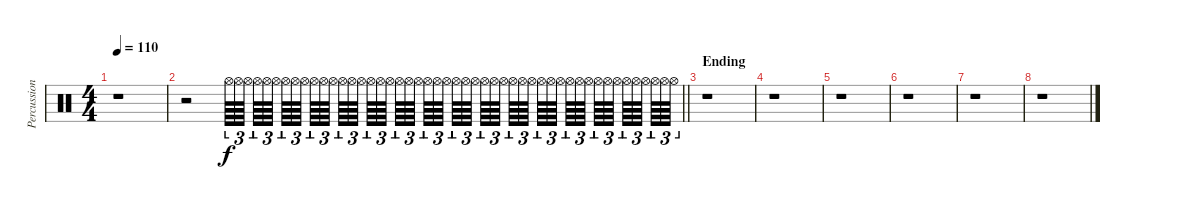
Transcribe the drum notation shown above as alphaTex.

\track ("Percussion" "Percussion") {instrument percussion}
\staff {score}
\articulation defaults
\ts (4 4)
\tempo 110
\clef neutral
\ks c
r.1{dy f} |
\barLineRight lightlight
r.2 "Hi-Hat (open)".64{tu (3 2)} "Hi-Hat (open)".64{tu (3 2)} "Hi-Hat (open)".64{tu (3 2) beam splitsecondary} "Hi-Hat (open)".64{tu (3 2)} "Hi-Hat (open)".64{tu (3 2)} "Hi-Hat (open)".64{tu (3 2) beam splitsecondary} "Hi-Hat (open)".64{tu (3 2)} "Hi-Hat (open)".64{tu (3 2)} "Hi-Hat (open)".64{tu (3 2) beam splitsecondary} "Hi-Hat (open)".64{tu (3 2)} "Hi-Hat (open)".64{tu (3 2)} "Hi-Hat (open)".64{tu (3 2) beam splitsecondary} "Hi-Hat (open)".64{tu (3 2)} "Hi-Hat (open)".64{tu (3 2)} "Hi-Hat (open)".64{tu (3 2) beam splitsecondary} "Hi-Hat (open)".64{tu (3 2)} "Hi-Hat (open)".64{tu (3 2)} "Hi-Hat (open)".64{tu (3 2) beam splitsecondary} "Hi-Hat (open)".64{tu (3 2)} "Hi-Hat (open)".64{tu (3 2)} "Hi-Hat (open)".64{tu (3 2) beam splitsecondary} "Hi-Hat (open)".64{tu (3 2)} "Hi-Hat (open)".64{tu (3 2)} "Hi-Hat (open)".64{tu (3 2)} "Hi-Hat (open)".64{tu (3 2)} "Hi-Hat (open)".64{tu (3 2)} "Hi-Hat (open)".64{tu (3 2) beam splitsecondary} "Hi-Hat (open)".64{tu (3 2)} "Hi-Hat (open)".64{tu (3 2)} "Hi-Hat (open)".64{tu (3 2) beam splitsecondary} "Hi-Hat (open)".64{tu (3 2)} "Hi-Hat (open)".64{tu (3 2)} "Hi-Hat (open)".64{tu (3 2) beam splitsecondary} "Hi-Hat (open)".64{tu (3 2)} "Hi-Hat (open)".64{tu (3 2)} "Hi-Hat (open)".64{tu (3 2) beam splitsecondary} "Hi-Hat (open)".64{tu (3 2)} "Hi-Hat (open)".64{tu (3 2)} "Hi-Hat (open)".64{tu (3 2) beam splitsecondary} "Hi-Hat (open)".64{tu (3 2)} "Hi-Hat (open)".64{tu (3 2)} "Hi-Hat (open)".64{tu (3 2) beam splitsecondary} "Hi-Hat (open)".64{tu (3 2)} "Hi-Hat (open)".64{tu (3 2)} "Hi-Hat (open)".64{tu (3 2) beam splitsecondary} "Hi-Hat (open)".64{tu (3 2)} "Hi-Hat (open)".64{tu (3 2)} "Hi-Hat (open)".64{tu (3 2)} |
\section ("" "Ending")
r.1 |
r.1 |
r.1 |
r.1 |
r.1 |
r.1
